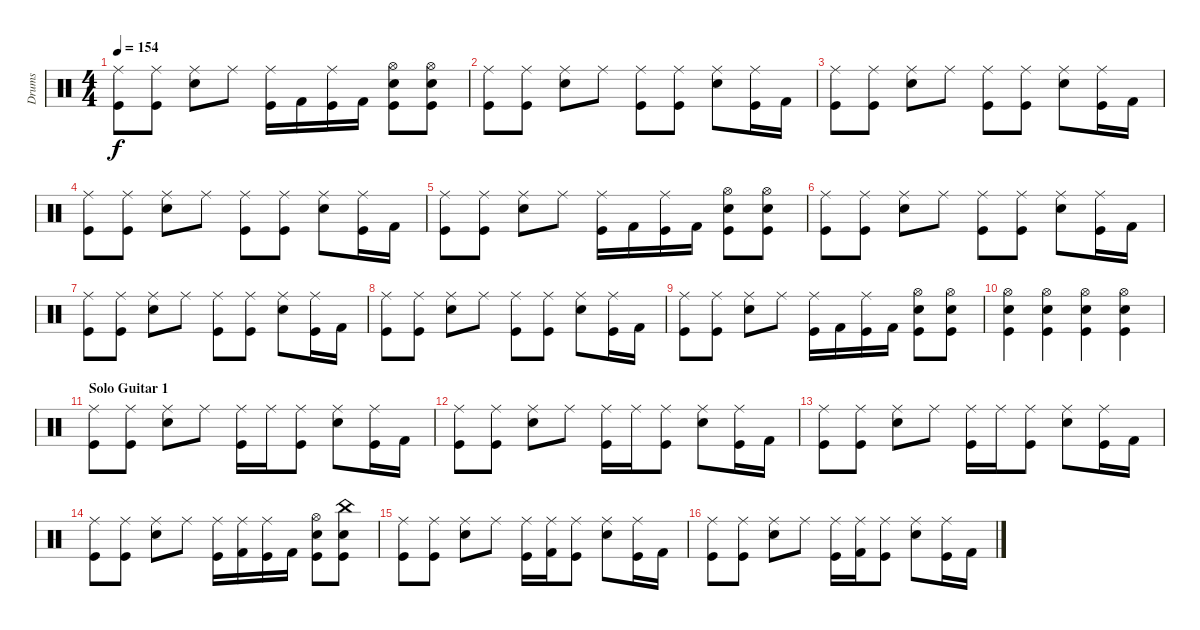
\track ("Drums" "Drums") {instrument percussion}
\staff {score}
\articulation defaults
\ts (4 4)
\tempo 154
\clef neutral
\ks c
("Ride (middle)" "Kick (hit)").8{dy f} ("Ride (middle)" "Kick (hit)").8 ("Ride (middle)" "Electric Snare (hit)").8 "Ride (middle)".8 ("Ride (middle)" "Kick (hit)").16 "Kick (hit) 2".16 ("Ride (middle)" "Kick (hit)").16 "Kick (hit) 2".16 ("Hi-Hat (open)" "Electric Snare (hit)" "Kick (hit)").8 ("Hi-Hat (open)" "Electric Snare (hit)" "Kick (hit)").8 |
("Ride (middle)" "Kick (hit)").8 ("Ride (middle)" "Kick (hit)").8 ("Ride (middle)" "Electric Snare (hit)").8 "Ride (middle)".8 ("Ride (middle)" "Kick (hit)").8 ("Ride (middle)" "Kick (hit)").8 ("Ride (middle)" "Electric Snare (hit)").8 ("Ride (middle)" "Kick (hit)").16 "Kick (hit) 2".16 |
("Ride (middle)" "Kick (hit)").8 ("Ride (middle)" "Kick (hit)").8 ("Ride (middle)" "Electric Snare (hit)").8 "Ride (middle)".8 ("Ride (middle)" "Kick (hit)").8 ("Ride (middle)" "Kick (hit)").8 ("Ride (middle)" "Electric Snare (hit)").8 ("Ride (middle)" "Kick (hit)").16 "Kick (hit) 2".16 |
("Ride (middle)" "Kick (hit)").8 ("Ride (middle)" "Kick (hit)").8 ("Ride (middle)" "Electric Snare (hit)").8 "Ride (middle)".8 ("Ride (middle)" "Kick (hit)").8 ("Ride (middle)" "Kick (hit)").8 ("Ride (middle)" "Electric Snare (hit)").8 ("Ride (middle)" "Kick (hit)").16 "Kick (hit) 2".16 |
("Ride (middle)" "Kick (hit)").8 ("Ride (middle)" "Kick (hit)").8 ("Ride (middle)" "Electric Snare (hit)").8 "Ride (middle)".8 ("Ride (middle)" "Kick (hit)").16 "Kick (hit) 2".16 ("Ride (middle)" "Kick (hit)").16 "Kick (hit) 2".16 ("Hi-Hat (open)" "Electric Snare (hit)" "Kick (hit)").8 ("Hi-Hat (open)" "Electric Snare (hit)" "Kick (hit)").8 |
("Ride (middle)" "Kick (hit)").8 ("Ride (middle)" "Kick (hit)").8 ("Ride (middle)" "Electric Snare (hit)").8 "Ride (middle)".8 ("Ride (middle)" "Kick (hit)").8 ("Ride (middle)" "Kick (hit)").8 ("Ride (middle)" "Electric Snare (hit)").8 ("Ride (middle)" "Kick (hit)").16 "Kick (hit) 2".16 |
("Ride (middle)" "Kick (hit)").8 ("Ride (middle)" "Kick (hit)").8 ("Ride (middle)" "Electric Snare (hit)").8 "Ride (middle)".8 ("Ride (middle)" "Kick (hit)").8 ("Ride (middle)" "Kick (hit)").8 ("Ride (middle)" "Electric Snare (hit)").8 ("Ride (middle)" "Kick (hit)").16 "Kick (hit) 2".16 |
("Ride (middle)" "Kick (hit)").8 ("Ride (middle)" "Kick (hit)").8 ("Ride (middle)" "Electric Snare (hit)").8 "Ride (middle)".8 ("Ride (middle)" "Kick (hit)").8 ("Ride (middle)" "Kick (hit)").8 ("Ride (middle)" "Electric Snare (hit)").8 ("Ride (middle)" "Kick (hit)").16 "Kick (hit) 2".16 |
("Ride (middle)" "Kick (hit)").8 ("Ride (middle)" "Kick (hit)").8 ("Ride (middle)" "Electric Snare (hit)").8 "Ride (middle)".8 ("Ride (middle)" "Kick (hit)").16 "Kick (hit) 2".16 ("Ride (middle)" "Kick (hit)").16 "Kick (hit) 2".16 ("Hi-Hat (open)" "Electric Snare (hit)" "Kick (hit)").8 ("Hi-Hat (open)" "Electric Snare (hit)" "Kick (hit)").8 |
("Hi-Hat (open)" "Electric Snare (hit)" "Kick (hit)").4 ("Hi-Hat (open)" "Electric Snare (hit)" "Kick (hit)").4 ("Hi-Hat (open)" "Electric Snare (hit)" "Kick (hit)").4 ("Hi-Hat (open)" "Electric Snare (hit)" "Kick (hit)").4 |
\section ("" "Solo Guitar 1")
("Ride (middle)" "Kick (hit)").8 ("Ride (middle)" "Kick (hit)").8 ("Ride (middle)" "Electric Snare (hit)").8 "Ride (middle)".8 ("Ride (middle)" "Kick (hit)").16 "Ride (middle)".16 ("Ride (middle)" "Kick (hit)").8 ("Ride (middle)" "Electric Snare (hit)").8 ("Ride (middle)" "Kick (hit)").16 "Kick (hit) 2".16 |
("Ride (middle)" "Kick (hit)").8 ("Ride (middle)" "Kick (hit)").8 ("Ride (middle)" "Electric Snare (hit)").8 "Ride (middle)".8 ("Ride (middle)" "Kick (hit)").16 "Ride (middle)".16 ("Ride (middle)" "Kick (hit)").8 ("Ride (middle)" "Electric Snare (hit)").8 ("Ride (middle)" "Kick (hit)").16 "Kick (hit) 2".16 |
("Ride (middle)" "Kick (hit)").8 ("Ride (middle)" "Kick (hit)").8 ("Ride (middle)" "Electric Snare (hit)").8 "Ride (middle)".8 ("Ride (middle)" "Kick (hit)").16 "Ride (middle)".16 ("Ride (middle)" "Kick (hit)").8 ("Ride (middle)" "Electric Snare (hit)").8 ("Ride (middle)" "Kick (hit)").16 "Kick (hit) 2".16 |
("Ride (middle)" "Kick (hit)").8 ("Ride (middle)" "Kick (hit)").8 ("Ride (middle)" "Electric Snare (hit)").8 "Ride (middle)".8 ("Ride (middle)" "Kick (hit)").16 ("Ride (middle)" "Kick (hit) 2").16 ("Ride (middle)" "Kick (hit)").16 "Kick (hit) 2".16 ("Hi-Hat (open)" "Electric Snare (hit)" "Kick (hit)").8 ("China (hit)" "Electric Snare (hit)" "Kick (hit)").8 |
("Ride (middle)" "Kick (hit)").8 ("Ride (middle)" "Kick (hit)").8 ("Ride (middle)" "Electric Snare (hit)").8 "Ride (middle)".8 ("Ride (middle)" "Kick (hit)").16 ("Ride (middle)" "Kick (hit) 2").16 ("Ride (middle)" "Kick (hit)").8 ("Ride (middle)" "Electric Snare (hit)").8 ("Ride (middle)" "Kick (hit)").16 "Kick (hit) 2".16 |
("Ride (middle)" "Kick (hit)").8 ("Ride (middle)" "Kick (hit)").8 ("Ride (middle)" "Electric Snare (hit)").8 "Ride (middle)".8 ("Ride (middle)" "Kick (hit)").16 ("Ride (middle)" "Kick (hit) 2").16 ("Ride (middle)" "Kick (hit)").8 ("Ride (middle)" "Electric Snare (hit)").8 ("Ride (middle)" "Kick (hit)").16 "Kick (hit) 2".16
